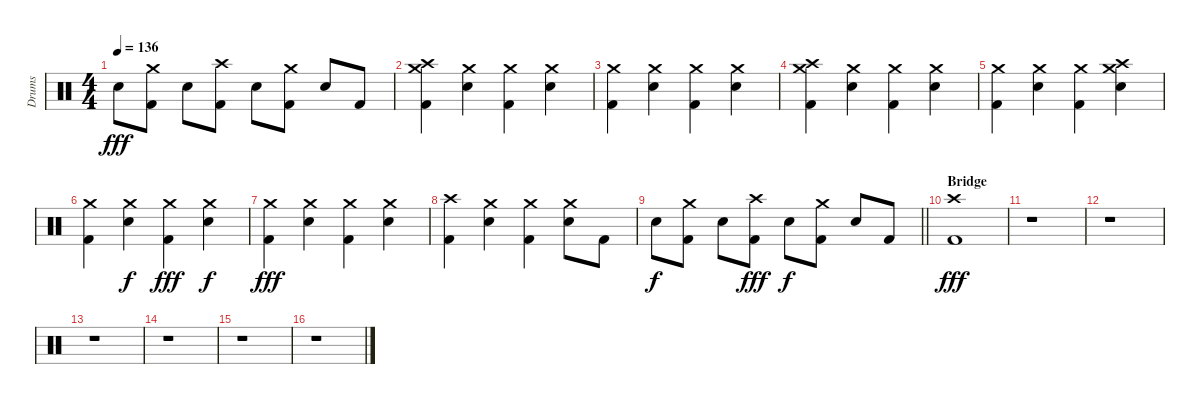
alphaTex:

\track ("Drums" "Drums") {instrument percussion}
\staff {score}
\articulation defaults
\ts (4 4)
\tempo 136
\clef neutral
\ks c "Electric Snare (hit)".8{dy fff}
("Crash medium (hit)" "Kick (hit) 2").8 "Electric Snare (hit)".8 ("Crash high (hit)" "Kick (hit) 2").8 "Electric Snare (hit)".8 ("Crash medium (hit)" "Kick (hit) 2").8 "Electric Snare (hit)".8 "Kick (hit) 2".8 |
("Crash medium (hit)" "Crash high (hit)" "Kick (hit) 2").4 ("Crash medium (hit)" "Electric Snare (hit)").4 ("Crash medium (hit)" "Kick (hit) 2").4 ("Crash medium (hit)" "Electric Snare (hit)").4 |
("Crash medium (hit)" "Kick (hit) 2").4 ("Crash medium (hit)" "Electric Snare (hit)").4 ("Crash medium (hit)" "Kick (hit) 2").4 ("Crash medium (hit)" "Electric Snare (hit)").4 |
("Crash medium (hit)" "Crash high (hit)" "Kick (hit) 2").4 ("Crash medium (hit)" "Electric Snare (hit)").4 ("Crash medium (hit)" "Kick (hit) 2").4 ("Crash medium (hit)" "Electric Snare (hit)").4 |
("Crash medium (hit)" "Kick (hit) 2").4 ("Crash medium (hit)" "Electric Snare (hit)").4 ("Crash medium (hit)" "Kick (hit) 2").4 ("Crash medium (hit)" "Crash high (hit)" "Electric Snare (hit)").4 |
("Crash medium (hit)" "Kick (hit) 2").4 ("Crash medium (hit)" "Electric Snare (hit)").4{dy f} ("Crash medium (hit)" "Kick (hit) 2").4{dy fff} ("Crash medium (hit)" "Electric Snare (hit)").4{dy f} |
("Crash medium (hit)" "Kick (hit) 2").4{dy fff} ("Crash medium (hit)" "Electric Snare (hit)").4 ("Crash medium (hit)" "Kick (hit) 2").4 ("Crash medium (hit)" "Electric Snare (hit)").4 |
("Crash high (hit)" "Kick (hit) 2").4 ("Crash medium (hit)" "Electric Snare (hit)").4 ("Crash medium (hit)" "Kick (hit) 2").4 ("Crash medium (hit)" "Electric Snare (hit)").8 "Kick (hit) 2".8 |
\barLineRight lightlight "Electric Snare (hit)".8{dy f}
("Crash medium (hit)" "Kick (hit) 2").8 "Electric Snare (hit)".8 ("Crash high (hit)" "Kick (hit) 2").8{dy fff} "Electric Snare (hit)".8{dy f} ("Crash medium (hit)" "Kick (hit) 2").8 "Electric Snare (hit)".8 "Kick (hit) 2".8 |
\section ("" "Bridge")
("Crash high (hit)" "Kick (hit) 2").1{dy fff} |
r.1 |
r.1 |
r.1 |
r.1 |
r.1 |
r.1
